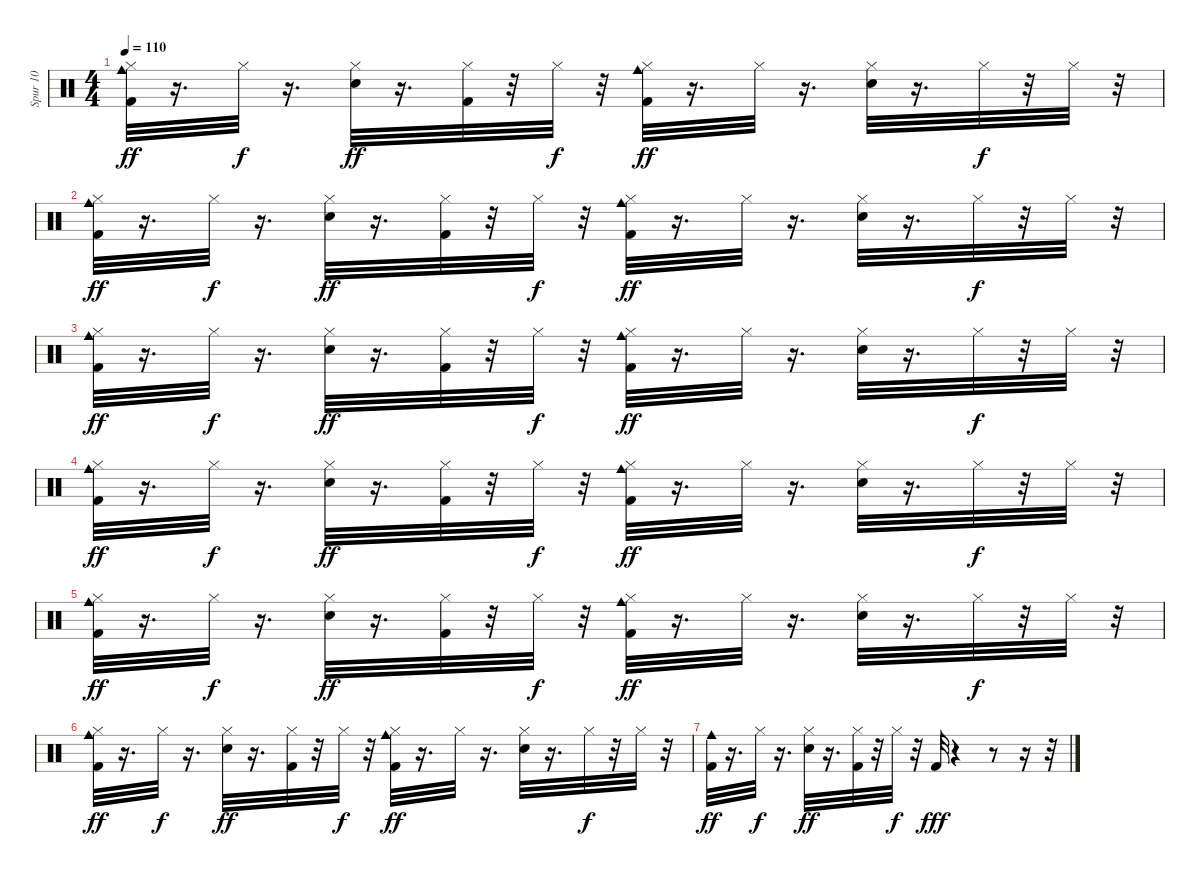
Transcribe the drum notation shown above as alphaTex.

\track ("Spur 10" "Spur 10") {instrument percussion}
\staff {score}
\articulation defaults
\ts (4 4)
\tempo 110
\clef neutral
\ks c
("Kick (hit) 2" "Cowbell medium (hit)" "Hi-Hat (closed)").32{dy ff} r.16{d} "Hi-Hat (closed)".32{dy f} r.16{d} ("Snare (hit) 2" "Hi-Hat (closed)").32{dy ff} r.16{d} ("Kick (hit) 2" "Hi-Hat (closed)").32 r.32 "Hi-Hat (closed)".32{dy f} r.32 ("Kick (hit) 2" "Cowbell medium (hit)" "Hi-Hat (closed)").32{dy ff} r.16{d} "Hi-Hat (closed)".32 r.16{d} ("Snare (hit) 2" "Hi-Hat (closed)").32 r.16{d} "Hi-Hat (closed)".32{dy f} r.32 "Hi-Hat (closed)".32 r.32 |
("Kick (hit) 2" "Cowbell medium (hit)" "Hi-Hat (closed)").32{dy ff} r.16{d} "Hi-Hat (closed)".32{dy f} r.16{d} ("Snare (hit) 2" "Hi-Hat (closed)").32{dy ff} r.16{d} ("Kick (hit) 2" "Hi-Hat (closed)").32 r.32 "Hi-Hat (closed)".32{dy f} r.32 ("Kick (hit) 2" "Cowbell medium (hit)" "Hi-Hat (closed)").32{dy ff} r.16{d} "Hi-Hat (closed)".32 r.16{d} ("Snare (hit) 2" "Hi-Hat (closed)").32 r.16{d} "Hi-Hat (closed)".32{dy f} r.32 "Hi-Hat (closed)".32 r.32 |
("Kick (hit) 2" "Cowbell medium (hit)" "Hi-Hat (closed)").32{dy ff} r.16{d} "Hi-Hat (closed)".32{dy f} r.16{d} ("Snare (hit) 2" "Hi-Hat (closed)").32{dy ff} r.16{d} ("Kick (hit) 2" "Hi-Hat (closed)").32 r.32 "Hi-Hat (closed)".32{dy f} r.32 ("Kick (hit) 2" "Cowbell medium (hit)" "Hi-Hat (closed)").32{dy ff} r.16{d} "Hi-Hat (closed)".32 r.16{d} ("Snare (hit) 2" "Hi-Hat (closed)").32 r.16{d} "Hi-Hat (closed)".32{dy f} r.32 "Hi-Hat (closed)".32 r.32 |
("Kick (hit) 2" "Cowbell medium (hit)" "Hi-Hat (closed)").32{dy ff} r.16{d} "Hi-Hat (closed)".32{dy f} r.16{d} ("Snare (hit) 2" "Hi-Hat (closed)").32{dy ff} r.16{d} ("Kick (hit) 2" "Hi-Hat (closed)").32 r.32 "Hi-Hat (closed)".32{dy f} r.32 ("Kick (hit) 2" "Cowbell medium (hit)" "Hi-Hat (closed)").32{dy ff} r.16{d} "Hi-Hat (closed)".32 r.16{d} ("Snare (hit) 2" "Hi-Hat (closed)").32 r.16{d} "Hi-Hat (closed)".32{dy f} r.32 "Hi-Hat (closed)".32 r.32 |
("Kick (hit) 2" "Cowbell medium (hit)" "Hi-Hat (closed)").32{dy ff} r.16{d} "Hi-Hat (closed)".32{dy f} r.16{d} ("Snare (hit) 2" "Hi-Hat (closed)").32{dy ff} r.16{d} ("Kick (hit) 2" "Hi-Hat (closed)").32 r.32 "Hi-Hat (closed)".32{dy f} r.32 ("Kick (hit) 2" "Cowbell medium (hit)" "Hi-Hat (closed)").32{dy ff} r.16{d} "Hi-Hat (closed)".32 r.16{d} ("Snare (hit) 2" "Hi-Hat (closed)").32 r.16{d} "Hi-Hat (closed)".32{dy f} r.32 "Hi-Hat (closed)".32 r.32 |
("Kick (hit) 2" "Cowbell medium (hit)" "Hi-Hat (closed)").32{dy ff} r.16{d} "Hi-Hat (closed)".32{dy f} r.16{d} ("Snare (hit) 2" "Hi-Hat (closed)").32{dy ff} r.16{d} ("Kick (hit) 2" "Hi-Hat (closed)").32 r.32 "Hi-Hat (closed)".32{dy f} r.32 ("Kick (hit) 2" "Cowbell medium (hit)" "Hi-Hat (closed)").32{dy ff} r.16{d} "Hi-Hat (closed)".32 r.16{d} ("Snare (hit) 2" "Hi-Hat (closed)").32 r.16{d} "Hi-Hat (closed)".32{dy f} r.32 "Hi-Hat (closed)".32 r.32 |
("Kick (hit) 2" "Cowbell medium (hit)").32{dy ff} r.16{d} "Hi-Hat (closed)".32{dy f} r.16{d} ("Snare (hit) 2" "Hi-Hat (closed)").32{dy ff} r.16{d} ("Kick (hit) 2" "Hi-Hat (closed)").32 r.32 "Hi-Hat (closed)".32{dy f} r.32 "Kick (hit) 2".32{dy fff} r.4 r.8 r.16 r.32
